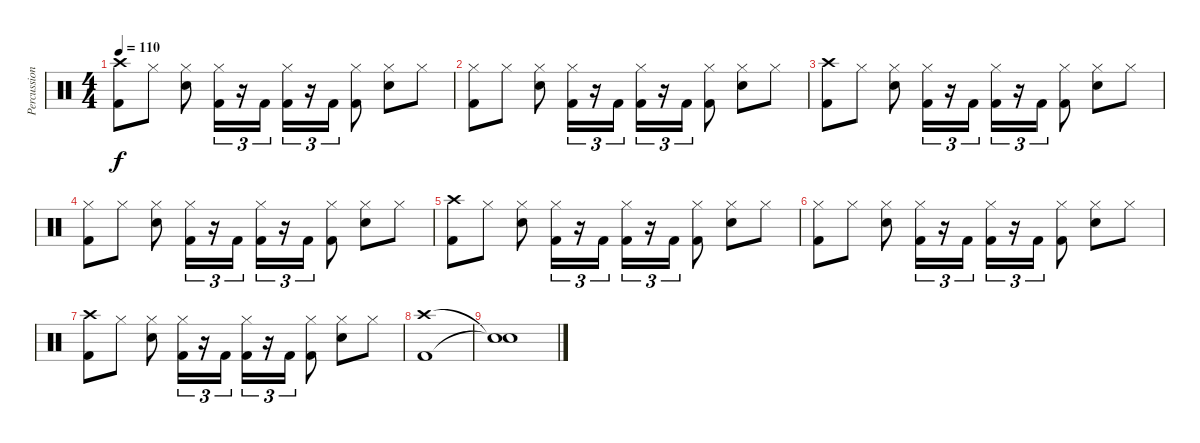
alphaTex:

\track ("Percussion" "Percussion") {instrument percussion}
\staff {score}
\articulation defaults
\ts (4 4)
\tempo 110
\clef neutral
\ks c
("Crash high (hit)" "Kick (hit) 2").8{dy f} "Hi-Hat (closed)".8 ("Hi-Hat (closed)" "Electric Snare (hit)").8 ("Hi-Hat (closed)" "Kick (hit) 2").16{tu (3 2)} r.16{tu (3 2)} "Kick (hit) 2".16{tu (3 2)} ("Hi-Hat (closed)" "Kick (hit) 2").16{tu (3 2)} r.16{tu (3 2)} "Kick (hit) 2".16{tu (3 2)} ("Hi-Hat (closed)" "Kick (hit) 2").8 ("Hi-Hat (closed)" "Electric Snare (hit)").8 "Hi-Hat (closed)".8 |
("Hi-Hat (closed)" "Kick (hit) 2").8 "Hi-Hat (closed)".8 ("Hi-Hat (closed)" "Electric Snare (hit)").8 ("Hi-Hat (closed)" "Kick (hit) 2").16{tu (3 2)} r.16{tu (3 2)} "Kick (hit) 2".16{tu (3 2)} ("Hi-Hat (closed)" "Kick (hit) 2").16{tu (3 2)} r.16{tu (3 2)} "Kick (hit) 2".16{tu (3 2)} ("Hi-Hat (closed)" "Kick (hit) 2").8 ("Hi-Hat (closed)" "Electric Snare (hit)").8 "Hi-Hat (closed)".8 |
("Crash high (hit)" "Kick (hit) 2").8 "Hi-Hat (closed)".8 ("Hi-Hat (closed)" "Electric Snare (hit)").8 ("Hi-Hat (closed)" "Kick (hit) 2").16{tu (3 2)} r.16{tu (3 2)} "Kick (hit) 2".16{tu (3 2)} ("Hi-Hat (closed)" "Kick (hit) 2").16{tu (3 2)} r.16{tu (3 2)} "Kick (hit) 2".16{tu (3 2)} ("Hi-Hat (closed)" "Kick (hit) 2").8 ("Hi-Hat (closed)" "Electric Snare (hit)").8 "Hi-Hat (closed)".8 |
("Hi-Hat (closed)" "Kick (hit) 2").8 "Hi-Hat (closed)".8 ("Hi-Hat (closed)" "Electric Snare (hit)").8 ("Hi-Hat (closed)" "Kick (hit) 2").16{tu (3 2)} r.16{tu (3 2)} "Kick (hit) 2".16{tu (3 2)} ("Hi-Hat (closed)" "Kick (hit) 2").16{tu (3 2)} r.16{tu (3 2)} "Kick (hit) 2".16{tu (3 2)} ("Hi-Hat (closed)" "Kick (hit) 2").8 ("Hi-Hat (closed)" "Electric Snare (hit)").8 "Hi-Hat (closed)".8 |
("Crash high (hit)" "Kick (hit) 2").8 "Hi-Hat (closed)".8 ("Hi-Hat (closed)" "Electric Snare (hit)").8 ("Hi-Hat (closed)" "Kick (hit) 2").16{tu (3 2)} r.16{tu (3 2)} "Kick (hit) 2".16{tu (3 2)} ("Hi-Hat (closed)" "Kick (hit) 2").16{tu (3 2)} r.16{tu (3 2)} "Kick (hit) 2".16{tu (3 2)} ("Hi-Hat (closed)" "Kick (hit) 2").8 ("Hi-Hat (closed)" "Electric Snare (hit)").8 "Hi-Hat (closed)".8 |
("Hi-Hat (closed)" "Kick (hit) 2").8 "Hi-Hat (closed)".8 ("Hi-Hat (closed)" "Electric Snare (hit)").8 ("Hi-Hat (closed)" "Kick (hit) 2").16{tu (3 2)} r.16{tu (3 2)} "Kick (hit) 2".16{tu (3 2)} ("Hi-Hat (closed)" "Kick (hit) 2").16{tu (3 2)} r.16{tu (3 2)} "Kick (hit) 2".16{tu (3 2)} ("Hi-Hat (closed)" "Kick (hit) 2").8 ("Hi-Hat (closed)" "Electric Snare (hit)").8 "Hi-Hat (closed)".8 |
("Crash high (hit)" "Kick (hit) 2").8 "Hi-Hat (closed)".8 ("Hi-Hat (closed)" "Electric Snare (hit)").8 ("Hi-Hat (closed)" "Kick (hit) 2").16{tu (3 2)} r.16{tu (3 2)} "Kick (hit) 2".16{tu (3 2)} ("Hi-Hat (closed)" "Kick (hit) 2").16{tu (3 2)} r.16{tu (3 2)} "Kick (hit) 2".16{tu (3 2)} ("Hi-Hat (closed)" "Kick (hit) 2").8 ("Hi-Hat (closed)" "Electric Snare (hit)").8 "Hi-Hat (closed)".8 |
("Crash high (hit)" "Kick (hit) 2").1 |
("Snare (hit)"{t} "Snare (hit)"{t}).1
